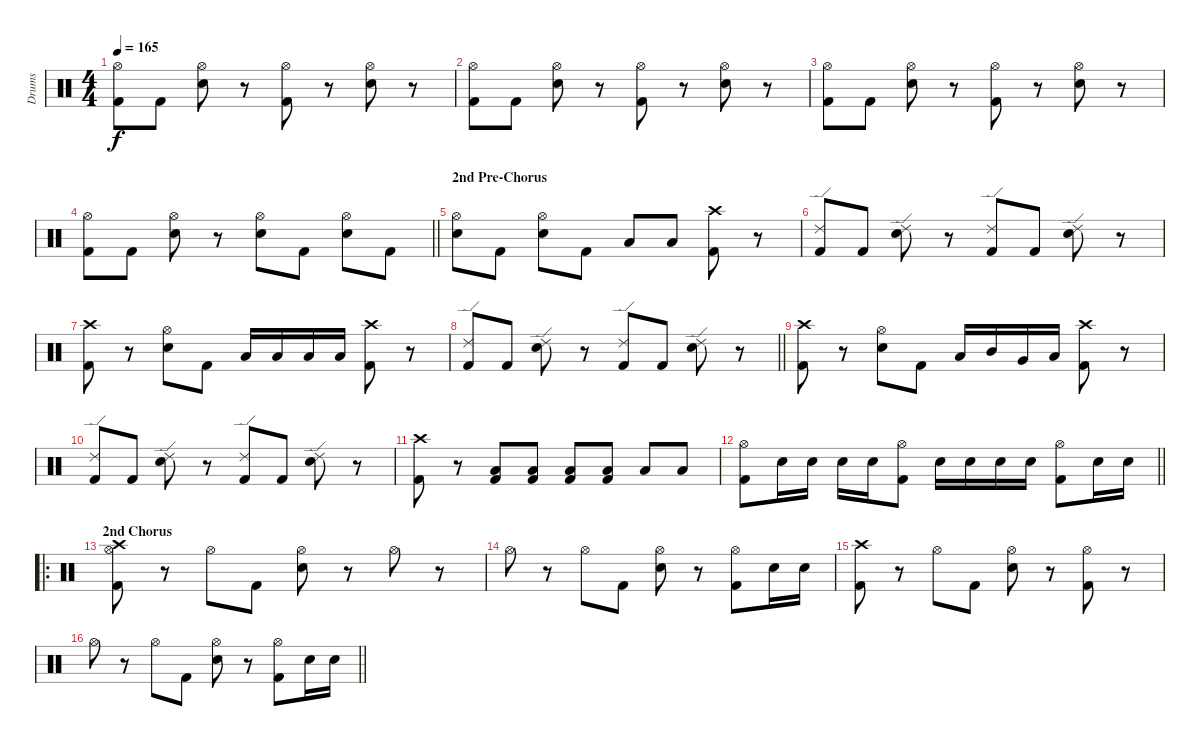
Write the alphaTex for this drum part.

\track ("Drums" "Drums") {instrument percussion}
\staff {score}
\articulation defaults
\ts (4 4)
\tempo 165
\clef neutral
\ks c
("Hi-Hat (open)" "Kick (hit) 2").8{dy f} "Kick (hit) 2".8 ("Hi-Hat (open)" "Electric Snare (hit)").8 r.8 ("Hi-Hat (open)" "Kick (hit) 2").8 r.8 ("Hi-Hat (open)" "Electric Snare (hit)").8 r.8 |
("Hi-Hat (open)" "Kick (hit) 2").8 "Kick (hit) 2".8 ("Hi-Hat (open)" "Electric Snare (hit)").8 r.8 ("Hi-Hat (open)" "Kick (hit) 2").8 r.8 ("Hi-Hat (open)" "Electric Snare (hit)").8 r.8 |
("Hi-Hat (open)" "Kick (hit) 2").8 "Kick (hit) 2".8 ("Hi-Hat (open)" "Electric Snare (hit)").8 r.8 ("Hi-Hat (open)" "Kick (hit) 2").8 r.8 ("Hi-Hat (open)" "Electric Snare (hit)").8 r.8 |
\barLineRight lightlight
("Hi-Hat (open)" "Kick (hit) 2").8 "Kick (hit) 2".8 ("Hi-Hat (open)" "Electric Snare (hit)").8 r.8 ("Hi-Hat (open)" "Electric Snare (hit)").8 "Kick (hit) 2".8 ("Hi-Hat (open)" "Electric Snare (hit)").8 "Kick (hit) 2".8 |
\section ("" "2nd Pre-Chorus")
("Hi-Hat (open)" "Electric Snare (hit)").8 "Kick (hit) 2".8 ("Hi-Hat (open)" "Electric Snare (hit)").8 "Kick (hit) 2".8 "Low Floor Tom (hit)".8 "Low Tom (hit)".8 ("Crash high (hit)" "Kick (hit) 2").8 r.8 |
("Ride (edge) 2" "Kick (hit) 2").8 "Kick (hit) 2".8 ("Ride (edge) 2" "Electric Snare (hit)").8 r.8 ("Ride (edge) 2" "Kick (hit) 2").8 "Kick (hit) 2".8 ("Ride (edge) 2" "Electric Snare (hit)").8 r.8 |
("Crash high (hit)" "Kick (hit) 2").8 r.8 ("Hi-Hat (open)" "Electric Snare (hit)").8 "Kick (hit) 2".8 "Low Tom (hit)".16 "Low Tom (hit)".16 "Low Tom (hit)".16 "Low Tom (hit)".16 ("Crash high (hit)" "Kick (hit) 2").8 r.8 |
\barLineRight lightlight
("Ride (edge) 2" "Kick (hit) 2").8 "Kick (hit) 2".8 ("Ride (edge) 2" "Electric Snare (hit)").8 r.8 ("Ride (edge) 2" "Kick (hit) 2").8 "Kick (hit) 2".8 ("Ride (edge) 2" "Electric Snare (hit)").8 r.8 |
("Crash high (hit)" "Kick (hit) 2").8 r.8 ("Hi-Hat (open)" "Electric Snare (hit)").8 "Kick (hit) 2".8 "Low Tom (hit)".16 "Mid Tom (hit)".16 "Very Low Tom (hit)".16 "Low Floor Tom (hit)".16 ("Crash high (hit)" "Kick (hit) 2").8 r.8 |
("Ride (edge) 2" "Kick (hit) 2").8 "Kick (hit) 2".8 ("Ride (edge) 2" "Electric Snare (hit)").8 r.8 ("Ride (edge) 2" "Kick (hit) 2").8 "Kick (hit) 2".8 ("Ride (edge) 2" "Electric Snare (hit)").8 r.8 |
("Crash high (hit)" "Kick (hit) 2").8 r.8 ("Low Floor Tom (hit)" "Kick (hit) 2").8 ("Low Floor Tom (hit)" "Kick (hit) 2").8 ("Low Floor Tom (hit)" "Kick (hit) 2").8 ("Low Floor Tom (hit)" "Kick (hit) 2").8 "Low Floor Tom (hit)".8 "Low Floor Tom (hit)".8 |
\barLineRight lightlight
("Hi-Hat (open)" "Kick (hit) 2").8 "Electric Snare (hit)".16 "Electric Snare (hit)".16 "Electric Snare (hit)".16 "Electric Snare (hit)".16 ("Hi-Hat (open)" "Kick (hit) 2").8 "Electric Snare (hit)".16 "Electric Snare (hit)".16 "Electric Snare (hit)".16 "Electric Snare (hit)".16 ("Hi-Hat (open)" "Kick (hit) 2").8 "Electric Snare (hit)".16 "Electric Snare (hit)".16 |
\ro
\section ("" "2nd Chorus")
("Crash high (hit)" "Hi-Hat (open)" "Kick (hit) 2").8 r.8 "Hi-Hat (open)".8 "Kick (hit) 2".8 ("Hi-Hat (open)" "Electric Snare (hit)").8 r.8 "Hi-Hat (open)".8 r.8 |
"Hi-Hat (open)".8 r.8 "Hi-Hat (open)".8 "Kick (hit) 2".8 ("Hi-Hat (open)" "Electric Snare (hit)").8 r.8 ("Hi-Hat (open)" "Kick (hit) 2").8 "Electric Snare (hit)".16 "Electric Snare (hit)".16 |
("Crash high (hit)" "Kick (hit) 2").8 r.8 "Hi-Hat (open)".8 "Kick (hit) 2".8 ("Hi-Hat (open)" "Electric Snare (hit)").8 r.8 ("Hi-Hat (open)" "Kick (hit) 2").8 r.8 |
\barLineRight lightlight "Hi-Hat (open)".8
r.8 "Hi-Hat (open)".8 "Kick (hit) 2".8 ("Hi-Hat (open)" "Electric Snare (hit)").8 r.8 ("Hi-Hat (open)" "Kick (hit) 2").8 "Electric Snare (hit)".16 "Electric Snare (hit)".16
